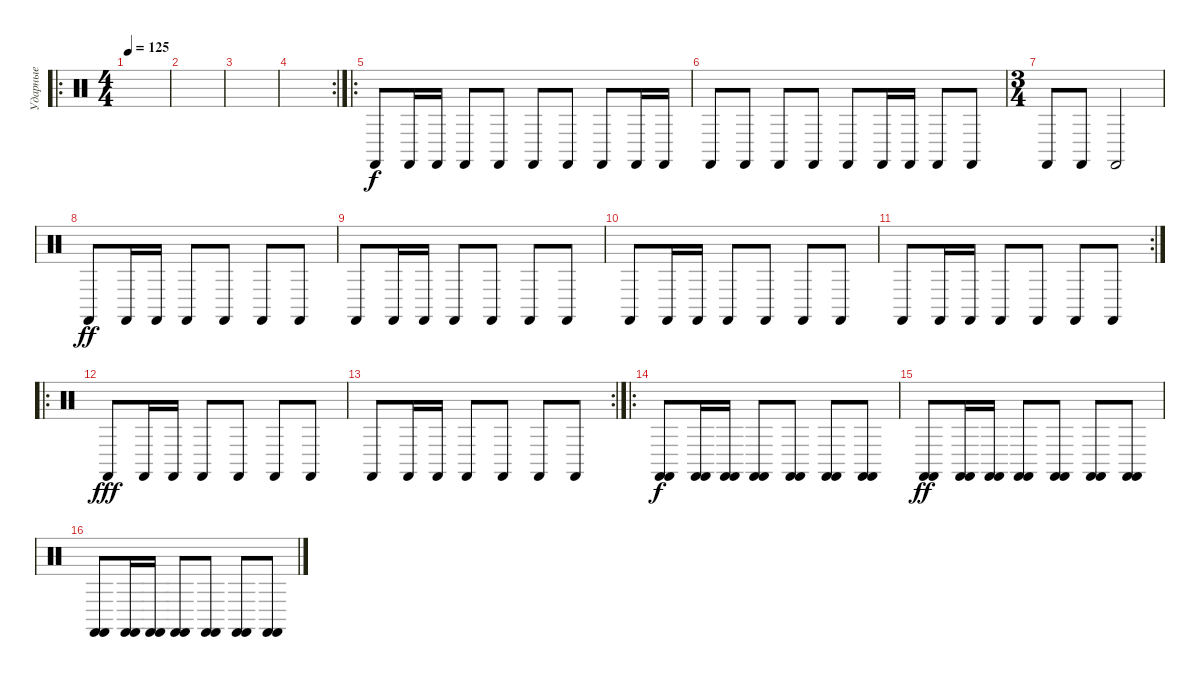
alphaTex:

\track ("Ударные" "Ударные") {instrument percussion}
\staff {score}
\articulation defaults
\ro
\ts (4 4)
\tempo 125
\clef neutral
\ks c
|
|
|
\rc 2
|
\ro "Castanets (hit)".8{volume 13} "Castanets (hit)".16 "Castanets (hit)".16 "Castanets (hit)".8 "Castanets (hit)".8 "Castanets (hit)".8 "Castanets (hit)".8 "Castanets (hit)".8 "Castanets (hit)".16 "Castanets (hit)".16
|
"Castanets (hit)".8 "Castanets (hit)".8 "Castanets (hit)".8 "Castanets (hit)".8 "Castanets (hit)".8 "Castanets (hit)".16 "Castanets (hit)".16 "Castanets (hit)".8 "Castanets (hit)".8 |
\ts (3 4)
"Castanets (hit)".8 "Castanets (hit)".8 "Castanets (hit)".2 |
"Castanets (hit)".8{dy ff} "Castanets (hit)".16 "Castanets (hit)".16 "Castanets (hit)".8 "Castanets (hit)".8 "Castanets (hit)".8 "Castanets (hit)".8 |
"Castanets (hit)".8 "Castanets (hit)".16 "Castanets (hit)".16 "Castanets (hit)".8 "Castanets (hit)".8 "Castanets (hit)".8 "Castanets (hit)".8 |
"Castanets (hit)".8 "Castanets (hit)".16 "Castanets (hit)".16 "Castanets (hit)".8 "Castanets (hit)".8 "Castanets (hit)".8 "Castanets (hit)".8 |
\rc 2 "Castanets (hit)".8 "Castanets (hit)".16 "Castanets (hit)".16 "Castanets (hit)".8 "Castanets (hit)".8 "Castanets (hit)".8 "Castanets (hit)".8
|
\ro "Castanets (hit)".8{dy fff} "Castanets (hit)".16 "Castanets (hit)".16 "Castanets (hit)".8 "Castanets (hit)".8 "Castanets (hit)".8 "Castanets (hit)".8
|
\rc 2 "Castanets (hit)".8 "Castanets (hit)".16 "Castanets (hit)".16 "Castanets (hit)".8 "Castanets (hit)".8 "Castanets (hit)".8 "Castanets (hit)".8
|
\ro
("Castanets (hit)" "Castanets (hit)").8{dy f} ("Castanets (hit)" "Castanets (hit)").16 ("Castanets (hit)" "Castanets (hit)").16 ("Castanets (hit)" "Castanets (hit)").8 ("Castanets (hit)" "Castanets (hit)").8 ("Castanets (hit)" "Castanets (hit)").8 ("Castanets (hit)" "Castanets (hit)").8 |
("Castanets (hit)" "Castanets (hit)").8{dy ff} ("Castanets (hit)" "Castanets (hit)").16 ("Castanets (hit)" "Castanets (hit)").16 ("Castanets (hit)" "Castanets (hit)").8 ("Castanets (hit)" "Castanets (hit)").8 ("Castanets (hit)" "Castanets (hit)").8 ("Castanets (hit)" "Castanets (hit)").8 |
("Castanets (hit)" "Castanets (hit)").8 ("Castanets (hit)" "Castanets (hit)").16 ("Castanets (hit)" "Castanets (hit)").16 ("Castanets (hit)" "Castanets (hit)").8 ("Castanets (hit)" "Castanets (hit)").8 ("Castanets (hit)" "Castanets (hit)").8 ("Castanets (hit)" "Castanets (hit)").8
